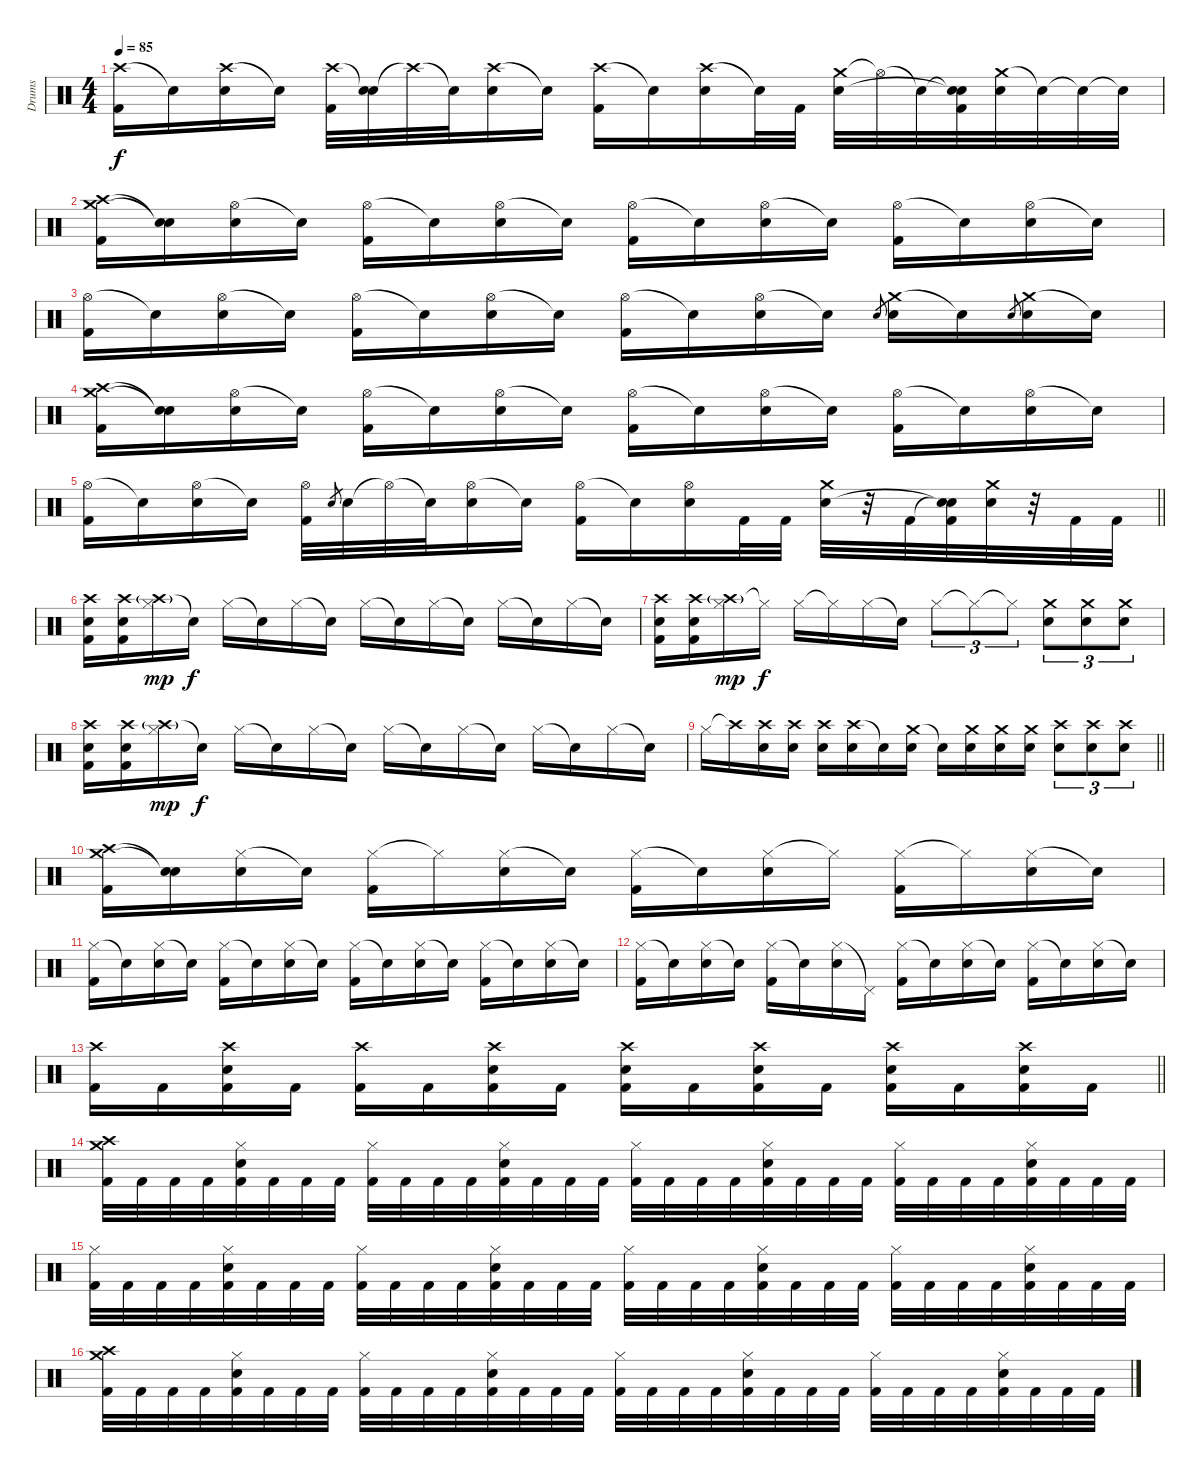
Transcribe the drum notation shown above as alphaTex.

\track ("Drums" "Drums") {instrument percussion}
\staff {score}
\articulation defaults
\ts (4 4)
\tempo 85
\clef neutral
\ks c
("Crash high (hit)" "Kick (hit) 2").16{dy f} "Snare (hit)"{t}.16 ("Crash high (hit)" "Electric Snare (hit)").16 "Snare (hit)"{t}.16 ("Crash high (hit)" "Kick (hit) 2").32 ("Snare (hit)"{t} "Electric Snare (hit)").32 "Crash high (hit)"{t}.32 "Snare (hit)"{t}.32 ("Crash high (hit)" "Electric Snare (hit)").16 "Snare (hit)"{t}.16 ("Crash high (hit)" "Kick (hit) 2").16 "Snare (hit)"{t}.16 ("Crash high (hit)" "Electric Snare (hit)").16 "Snare (hit)"{t}.32 "Kick (hit) 2".32 ("Crash medium (hit)" "Electric Snare (hit)").32 "Hi-Hat (open)"{t}.32 "Snare (hit)"{t}.32 ("Snare (hit)"{t} "Snare (hit)"{t} "Kick (hit) 2").32 ("Crash medium (hit)" "Electric Snare (hit)").32 "Snare (hit)"{t}.32 "Snare (hit)"{t}.32 "Snare (hit)"{t}.32 |
("Crash medium (hit)" "Crash high (hit)" "Kick (hit) 2").16 ("Snare (hit)"{t} "Snare (hit)"{t}).16 ("Hi-Hat (open)" "Electric Snare (hit)").16 "Snare (hit)"{t}.16 ("Hi-Hat (open)" "Kick (hit) 2").16 "Snare (hit)"{t}.16 ("Hi-Hat (open)" "Electric Snare (hit)").16 "Snare (hit)"{t}.16 ("Hi-Hat (open)" "Kick (hit) 2").16 "Snare (hit)"{t}.16 ("Hi-Hat (open)" "Electric Snare (hit)").16 "Snare (hit)"{t}.16 ("Hi-Hat (open)" "Kick (hit) 2").16 "Snare (hit)"{t}.16 ("Hi-Hat (open)" "Electric Snare (hit)").16 "Snare (hit)"{t}.16 |
("Hi-Hat (open)" "Kick (hit) 2").16 "Snare (hit)"{t}.16 ("Hi-Hat (open)" "Electric Snare (hit)").16 "Snare (hit)"{t}.16 ("Hi-Hat (open)" "Kick (hit) 2").16 "Snare (hit)"{t}.16 ("Hi-Hat (open)" "Electric Snare (hit)").16 "Snare (hit)"{t}.16 ("Hi-Hat (open)" "Kick (hit) 2").16 "Snare (hit)"{t}.16 ("Hi-Hat (open)" "Electric Snare (hit)").16 "Snare (hit)"{t}.16 "Electric Snare (hit)".8{gr} ("Crash medium (hit)" "Electric Snare (hit)").16 "Snare (hit)"{t}.16 "Electric Snare (hit)".8{gr} ("Crash medium (hit)" "Electric Snare (hit)").16 "Snare (hit)"{t}.16 |
("Crash medium (hit)" "Crash high (hit)" "Kick (hit) 2").16 ("Snare (hit)"{t} "Snare (hit)"{t}).16 ("Hi-Hat (open)" "Electric Snare (hit)").16 "Snare (hit)"{t}.16 ("Hi-Hat (open)" "Kick (hit) 2").16 "Snare (hit)"{t}.16 ("Hi-Hat (open)" "Electric Snare (hit)").16 "Snare (hit)"{t}.16 ("Hi-Hat (open)" "Kick (hit) 2").16 "Snare (hit)"{t}.16 ("Hi-Hat (open)" "Electric Snare (hit)").16 "Snare (hit)"{t}.16 ("Hi-Hat (open)" "Kick (hit) 2").16 "Snare (hit)"{t}.16 ("Hi-Hat (open)" "Electric Snare (hit)").16 "Snare (hit)"{t}.16 |
\barLineRight lightlight
("Hi-Hat (open)" "Kick (hit) 2").16 "Snare (hit)"{t}.16 ("Hi-Hat (open)" "Electric Snare (hit)").16 "Snare (hit)"{t}.16 ("Hi-Hat (open)" "Kick (hit) 2").32 "Electric Snare (hit)".8{gr} "Electric Snare (hit)".32 "Hi-Hat (open)"{t}.32 "Snare (hit)"{t}.32 ("Hi-Hat (open)" "Electric Snare (hit)").16 "Snare (hit)"{t}.16 ("Hi-Hat (open)" "Kick (hit) 2").16 "Snare (hit)"{t}.16 ("Hi-Hat (open)" "Electric Snare (hit)").16 "Kick (hit) 2".32 "Kick (hit) 2".32 ("Crash medium (hit)" "Electric Snare (hit)").32 r.32 "Kick (hit) 2".32 ("Snare (hit)"{t} "Snare (hit)"{t} "Kick (hit) 2").32 ("Crash medium (hit)" "Electric Snare (hit)").32 r.32 "Kick (hit) 2".32 "Kick (hit) 2".32 |
("Crash high (hit)" "Electric Snare (hit)" "Kick (hit) 2").16 ("Crash high (hit)" "Electric Snare (hit)" "Kick (hit) 2").16 ("Crash high (hit)"{g} "Hi-Hat (closed)").16{dy mp} "Snare (hit)"{t}.16{dy f} "Hi-Hat (closed)".16 "Snare (hit)"{t}.16 "Hi-Hat (closed)".16 "Snare (hit)"{t}.16 "Hi-Hat (closed)".16 "Snare (hit)"{t}.16 "Hi-Hat (closed)".16 "Snare (hit)"{t}.16 "Hi-Hat (closed)".16 "Snare (hit)"{t}.16 "Hi-Hat (closed)".16 "Snare (hit)"{t}.16 |
("Crash high (hit)" "Electric Snare (hit)" "Kick (hit) 2").16 ("Crash high (hit)" "Electric Snare (hit)" "Kick (hit) 2").16 ("Crash high (hit)"{g} "Hi-Hat (closed)").16{dy mp} "Hi-Hat (closed)"{t}.16{dy f} "Hi-Hat (closed)".16 "Hi-Hat (closed)"{t}.16 "Hi-Hat (closed)".16 "Snare (hit)"{t}.16 "Hi-Hat (closed)".8{tu (3 2)} "Hi-Hat (closed)"{t}.8{tu (3 2)} "Hi-Hat (closed)"{t}.8{tu (3 2)} ("Crash medium (hit)" "Electric Snare (hit)").8{tu (3 2)} ("Crash medium (hit)" "Electric Snare (hit)").8{tu (3 2)} ("Crash medium (hit)" "Electric Snare (hit)").8{tu (3 2)} |
("Crash high (hit)" "Electric Snare (hit)" "Kick (hit) 2").16 ("Crash high (hit)" "Electric Snare (hit)" "Kick (hit) 2").16 ("Crash high (hit)"{g} "Hi-Hat (closed)").16{dy mp} "Snare (hit)"{t}.16{dy f} "Hi-Hat (closed)".16 "Snare (hit)"{t}.16 "Hi-Hat (closed)".16 "Snare (hit)"{t}.16 "Hi-Hat (closed)".16 "Snare (hit)"{t}.16 "Hi-Hat (closed)".16 "Snare (hit)"{t}.16 "Hi-Hat (closed)".16 "Snare (hit)"{t}.16 "Hi-Hat (closed)".16 "Snare (hit)"{t}.16 |
\barLineRight lightlight "Hi-Hat (closed)".16 "Crash high (hit)"{t}.16
("Crash high (hit)" "Electric Snare (hit)").16 ("Crash high (hit)" "Electric Snare (hit)").16 ("Crash high (hit)" "Electric Snare (hit)").16 ("Crash high (hit)" "Electric Snare (hit)").16 "Snare (hit)"{t}.16 ("Crash medium (hit)" "Electric Snare (hit)").16 "Snare (hit)"{t}.16 ("Crash medium (hit)" "Electric Snare (hit)").16 ("Crash medium (hit)" "Electric Snare (hit)").16 ("Crash medium (hit)" "Electric Snare (hit)").16 ("Crash high (hit)" "Electric Snare (hit)").8{tu (3 2)} ("Crash high (hit)" "Electric Snare (hit)").8{tu (3 2)} ("Crash high (hit)" "Electric Snare (hit)").8{tu (3 2)} |
("Crash medium (hit)" "Crash high (hit)" "Kick (hit) 2").16 ("Snare (hit)"{t} "Snare (hit)"{t}).16 ("Hi-Hat (closed)" "Electric Snare (hit)").16 "Snare (hit)"{t}.16 ("Hi-Hat (closed)" "Kick (hit) 2").16 "Hi-Hat (closed)"{t}.16 ("Hi-Hat (closed)" "Electric Snare (hit)").16 "Snare (hit)"{t}.16 ("Hi-Hat (closed)" "Kick (hit) 2").16 "Snare (hit)"{t}.16 ("Hi-Hat (closed)" "Electric Snare (hit)").16 "Hi-Hat (closed)"{t}.16 ("Hi-Hat (closed)" "Kick (hit) 2").16 "Hi-Hat (closed)"{t}.16 ("Hi-Hat (closed)" "Electric Snare (hit)").16 "Snare (hit)"{t}.16 |
("Hi-Hat (closed)" "Kick (hit) 2").16 "Snare (hit)"{t}.16 ("Hi-Hat (closed)" "Electric Snare (hit)").16 "Snare (hit)"{t}.16 ("Hi-Hat (closed)" "Kick (hit) 2").16 "Snare (hit)"{t}.16 ("Hi-Hat (closed)" "Electric Snare (hit)").16 "Snare (hit)"{t}.16 ("Hi-Hat (closed)" "Kick (hit) 2").16 "Snare (hit)"{t}.16 ("Hi-Hat (closed)" "Electric Snare (hit)").16 "Snare (hit)"{t}.16 ("Hi-Hat (closed)" "Kick (hit) 2").16 "Snare (hit)"{t}.16 ("Hi-Hat (closed)" "Electric Snare (hit)").16 "Snare (hit)"{t}.16 |
("Hi-Hat (closed)" "Kick (hit) 2").16 "Snare (hit)"{t}.16 ("Hi-Hat (closed)" "Electric Snare (hit)").16 "Snare (hit)"{t}.16 ("Hi-Hat (closed)" "Kick (hit) 2").16 "Snare (hit)"{t}.16 ("Hi-Hat (closed)" "Electric Snare (hit)").16 "Pedal Hi-Hat (hit)"{t}.16 ("Hi-Hat (closed)" "Kick (hit) 2").16 "Snare (hit)"{t}.16 ("Hi-Hat (closed)" "Electric Snare (hit)").16 "Snare (hit)"{t}.16 ("Hi-Hat (closed)" "Kick (hit) 2").16 "Snare (hit)"{t}.16 ("Hi-Hat (closed)" "Electric Snare (hit)").16 "Snare (hit)"{t}.16 |
\barLineRight lightlight
("Crash high (hit)" "Kick (hit) 2").16 "Kick (hit) 2".16 ("Crash high (hit)" "Electric Snare (hit)" "Kick (hit) 2").16 "Kick (hit) 2".16 ("Crash high (hit)" "Kick (hit) 2").16 "Kick (hit) 2".16 ("Crash high (hit)" "Electric Snare (hit)" "Kick (hit) 2").16 "Kick (hit) 2".16 ("Crash high (hit)" "Electric Snare (hit)" "Kick (hit) 2").16 "Kick (hit) 2".16 ("Crash high (hit)" "Electric Snare (hit)" "Kick (hit) 2").16 "Kick (hit) 2".16 ("Crash high (hit)" "Electric Snare (hit)" "Kick (hit) 2").16 "Kick (hit) 2".16 ("Crash high (hit)" "Electric Snare (hit)" "Kick (hit) 2").16 "Kick (hit) 2".16 |
("Crash medium (hit)" "Crash high (hit)" "Kick (hit) 2").32 "Kick (hit) 2".32 "Kick (hit) 2".32 "Kick (hit) 2".32 ("Hi-Hat (closed)" "Electric Snare (hit)" "Kick (hit) 2").32 "Kick (hit) 2".32 "Kick (hit) 2".32 "Kick (hit) 2".32 ("Hi-Hat (closed)" "Kick (hit) 2").32 "Kick (hit) 2".32 "Kick (hit) 2".32 "Kick (hit) 2".32 ("Hi-Hat (closed)" "Electric Snare (hit)" "Kick (hit) 2").32 "Kick (hit) 2".32 "Kick (hit) 2".32 "Kick (hit) 2".32 ("Hi-Hat (closed)" "Kick (hit) 2").32 "Kick (hit) 2".32 "Kick (hit) 2".32 "Kick (hit) 2".32 ("Hi-Hat (closed)" "Electric Snare (hit)" "Kick (hit) 2").32 "Kick (hit) 2".32 "Kick (hit) 2".32 "Kick (hit) 2".32 ("Hi-Hat (closed)" "Kick (hit) 2").32 "Kick (hit) 2".32 "Kick (hit) 2".32 "Kick (hit) 2".32 ("Hi-Hat (closed)" "Electric Snare (hit)" "Kick (hit) 2").32 "Kick (hit) 2".32 "Kick (hit) 2".32 "Kick (hit) 2".32 |
("Hi-Hat (closed)" "Kick (hit) 2").32 "Kick (hit) 2".32 "Kick (hit) 2".32 "Kick (hit) 2".32 ("Hi-Hat (closed)" "Electric Snare (hit)" "Kick (hit) 2").32 "Kick (hit) 2".32 "Kick (hit) 2".32 "Kick (hit) 2".32 ("Hi-Hat (closed)" "Kick (hit) 2").32 "Kick (hit) 2".32 "Kick (hit) 2".32 "Kick (hit) 2".32 ("Hi-Hat (closed)" "Electric Snare (hit)" "Kick (hit) 2").32 "Kick (hit) 2".32 "Kick (hit) 2".32 "Kick (hit) 2".32 ("Hi-Hat (closed)" "Kick (hit) 2").32 "Kick (hit) 2".32 "Kick (hit) 2".32 "Kick (hit) 2".32 ("Hi-Hat (closed)" "Electric Snare (hit)" "Kick (hit) 2").32 "Kick (hit) 2".32 "Kick (hit) 2".32 "Kick (hit) 2".32 ("Hi-Hat (closed)" "Kick (hit) 2").32 "Kick (hit) 2".32 "Kick (hit) 2".32 "Kick (hit) 2".32 ("Hi-Hat (closed)" "Electric Snare (hit)" "Kick (hit) 2").32 "Kick (hit) 2".32 "Kick (hit) 2".32 "Kick (hit) 2".32 |
("Crash medium (hit)" "Crash high (hit)" "Kick (hit) 2").32 "Kick (hit) 2".32 "Kick (hit) 2".32 "Kick (hit) 2".32 ("Hi-Hat (closed)" "Electric Snare (hit)" "Kick (hit) 2").32 "Kick (hit) 2".32 "Kick (hit) 2".32 "Kick (hit) 2".32 ("Hi-Hat (closed)" "Kick (hit) 2").32 "Kick (hit) 2".32 "Kick (hit) 2".32 "Kick (hit) 2".32 ("Hi-Hat (closed)" "Electric Snare (hit)" "Kick (hit) 2").32 "Kick (hit) 2".32 "Kick (hit) 2".32 "Kick (hit) 2".32 ("Hi-Hat (closed)" "Kick (hit) 2").32 "Kick (hit) 2".32 "Kick (hit) 2".32 "Kick (hit) 2".32 ("Hi-Hat (closed)" "Electric Snare (hit)" "Kick (hit) 2").32 "Kick (hit) 2".32 "Kick (hit) 2".32 "Kick (hit) 2".32 ("Hi-Hat (closed)" "Kick (hit) 2").32 "Kick (hit) 2".32 "Kick (hit) 2".32 "Kick (hit) 2".32 ("Hi-Hat (closed)" "Electric Snare (hit)" "Kick (hit) 2").32 "Kick (hit) 2".32 "Kick (hit) 2".32 "Kick (hit) 2".32
